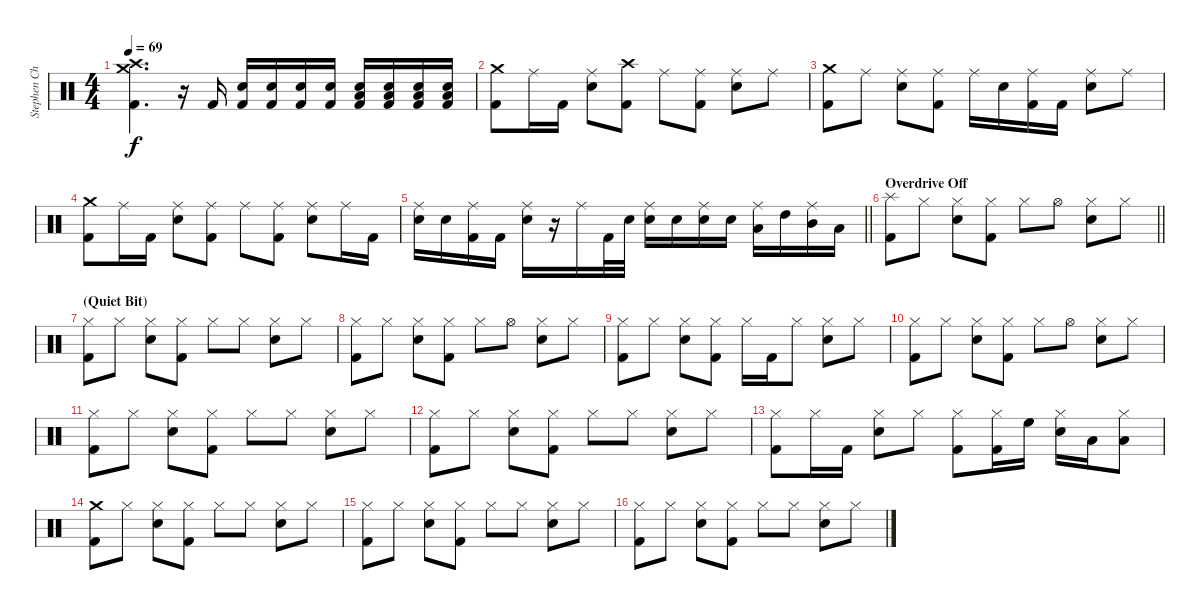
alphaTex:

\track ("Stephen Chopek" "Stephen Ch") {instrument percussion}
\staff {score}
\articulation defaults
\ts (4 4)
\tempo 69
\clef neutral
\ks c
("Crash medium (hit)" "Crash high (hit)" "Kick (hit) 2").4{d dy f} r.16 "Kick (hit) 2".16 ("Snare (hit) 2" "Kick (hit) 2").16 ("Snare (hit) 2" "Kick (hit) 2").16 ("Snare (hit) 2" "Kick (hit) 2").16 ("Snare (hit) 2" "Kick (hit) 2").16 ("Low Floor Tom (hit)" "Snare (hit) 2" "Kick (hit) 2").16 ("Low Floor Tom (hit)" "Snare (hit) 2" "Kick (hit) 2").16 ("Low Floor Tom (hit)" "Snare (hit) 2" "Kick (hit) 2").16 ("Low Floor Tom (hit)" "Snare (hit) 2" "Kick (hit) 2").16 |
("Crash medium (hit)" "Kick (hit) 2").8 "Ride (middle)".16 "Kick (hit) 2".16 ("Ride (middle)" "Snare (hit) 2").8 ("Crash high (hit)" "Kick (hit) 2").8 "Ride (middle)".8 ("Ride (middle)" "Kick (hit) 2").8 ("Ride (middle)" "Snare (hit) 2").8 "Ride (middle)".8 |
("Crash medium (hit)" "Kick (hit) 2").8 "Ride (middle)".8 ("Ride (middle)" "Snare (hit) 2").8 ("Ride (middle)" "Kick (hit) 2").8 "Ride (middle)".16 "Snare (hit) 2".16 ("Ride (middle)" "Kick (hit) 2").16 "Kick (hit) 2".16 ("Ride (middle)" "Snare (hit) 2").8 "Ride (middle)".8 |
("Crash medium (hit)" "Kick (hit) 2").8 "Ride (middle)".16 "Kick (hit) 2".16 ("Ride (middle)" "Snare (hit) 2").8 ("Ride (middle)" "Kick (hit) 2").8 "Ride (middle)".8 ("Ride (middle)" "Kick (hit) 2").8 ("Ride (middle)" "Snare (hit) 2").8 "Ride (middle)".16 "Kick (hit) 2".16 |
\barLineRight lightlight
("Ride (middle)" "Snare (hit) 2").16 "Snare (hit) 2".16 ("Ride (middle)" "Kick (hit) 2").16 "Kick (hit) 2".16 ("Ride (middle)" "Snare (hit) 2").16 r.16 "Ride (middle)".16 "Kick (hit) 2".32 "Snare (hit) 2".32 ("Ride (middle)" "Snare (hit) 2").16 "Snare (hit) 2".16 ("Ride (middle)" "Snare (hit) 2").16 "Snare (hit) 2".16 ("Ride (middle)" "Low Tom (hit)").16 "High Tom (hit)".16 ("Ride (middle)" "Mid Tom (hit)").16 "Low Floor Tom (hit)".16 |
\section ("" "Overdrive Off")
\barLineRight lightlight
("Splash (hit)" "Kick (hit) 2").8 "Hi-Hat (closed)".8 ("Hi-Hat (closed)" "Snare (hit) 2").8 ("Hi-Hat (closed)" "Kick (hit) 2").8 "Hi-Hat (closed)".8 "Hi-Hat (open)".8 ("Hi-Hat (closed)" "Snare (hit) 2").8 "Hi-Hat (closed)".8 |
\section ("" "(Quiet Bit)")
("Hi-Hat (closed)" "Kick (hit) 2").8 "Hi-Hat (closed)".8 ("Hi-Hat (closed)" "Snare (hit) 2").8 ("Hi-Hat (closed)" "Kick (hit) 2").8 "Hi-Hat (closed)".8 "Hi-Hat (closed)".8 ("Hi-Hat (closed)" "Snare (hit) 2").8 "Hi-Hat (closed)".8 |
("Hi-Hat (closed)" "Kick (hit) 2").8 "Hi-Hat (closed)".8 ("Hi-Hat (closed)" "Snare (hit) 2").8 ("Hi-Hat (closed)" "Kick (hit) 2").8 "Hi-Hat (closed)".8 "Hi-Hat (open)".8 ("Hi-Hat (closed)" "Snare (hit) 2").8 "Hi-Hat (closed)".8 |
("Hi-Hat (closed)" "Kick (hit) 2").8 "Hi-Hat (closed)".8 ("Hi-Hat (closed)" "Snare (hit) 2").8 ("Hi-Hat (closed)" "Kick (hit) 2").8 "Hi-Hat (closed)".16 "Kick (hit) 2".16 "Hi-Hat (closed)".8 ("Hi-Hat (closed)" "Snare (hit) 2").8 "Hi-Hat (closed)".8 |
("Hi-Hat (closed)" "Kick (hit) 2").8 "Hi-Hat (closed)".8 ("Hi-Hat (closed)" "Snare (hit) 2").8 ("Hi-Hat (closed)" "Kick (hit) 2").8 "Hi-Hat (closed)".8 "Hi-Hat (open)".8 ("Hi-Hat (closed)" "Snare (hit) 2").8 "Hi-Hat (closed)".8 |
("Hi-Hat (closed)" "Kick (hit) 2").8 "Hi-Hat (closed)".8 ("Hi-Hat (closed)" "Snare (hit) 2").8 ("Hi-Hat (closed)" "Kick (hit) 2").8 "Hi-Hat (closed)".8 "Hi-Hat (closed)".8 ("Hi-Hat (closed)" "Snare (hit) 2").8 "Hi-Hat (closed)".8 |
("Hi-Hat (closed)" "Kick (hit) 2").8 "Hi-Hat (closed)".8 ("Hi-Hat (closed)" "Snare (hit) 2").8 ("Hi-Hat (closed)" "Kick (hit) 2").8 "Hi-Hat (closed)".8 "Hi-Hat (closed)".8 ("Hi-Hat (closed)" "Snare (hit) 2").8 "Hi-Hat (closed)".8 |
("Hi-Hat (closed)" "Kick (hit) 2").8 "Hi-Hat (closed)".16 "Kick (hit) 2".16 ("Hi-Hat (closed)" "Snare (hit) 2").8 "Hi-Hat (closed)".8 ("Hi-Hat (closed)" "Kick (hit) 2").8 ("Hi-Hat (closed)" "Kick (hit) 2").16 "High Floor Tom (hit)".16 ("Hi-Hat (closed)" "Snare (hit) 2").16 "Low Tom (hit)".16 ("Hi-Hat (closed)" "Low Floor Tom (hit)").8 |
("Crash medium (hit)" "Kick (hit) 2").8 "Hi-Hat (closed)".8 ("Hi-Hat (closed)" "Snare (hit) 2").8 ("Hi-Hat (closed)" "Kick (hit) 2").8 "Hi-Hat (closed)".8 "Hi-Hat (closed)".8 ("Hi-Hat (closed)" "Snare (hit) 2").8 "Hi-Hat (closed)".8 |
("Hi-Hat (closed)" "Kick (hit) 2").8 "Hi-Hat (closed)".8 ("Hi-Hat (closed)" "Snare (hit) 2").8 ("Hi-Hat (closed)" "Kick (hit) 2").8 "Hi-Hat (closed)".8 "Hi-Hat (closed)".8 ("Hi-Hat (closed)" "Snare (hit) 2").8 "Hi-Hat (closed)".8 |
("Hi-Hat (closed)" "Kick (hit) 2").8 "Hi-Hat (closed)".8 ("Hi-Hat (closed)" "Snare (hit) 2").8 ("Hi-Hat (closed)" "Kick (hit) 2").8 "Hi-Hat (closed)".8 "Hi-Hat (closed)".8 ("Hi-Hat (closed)" "Snare (hit) 2").8 "Hi-Hat (closed)".8
